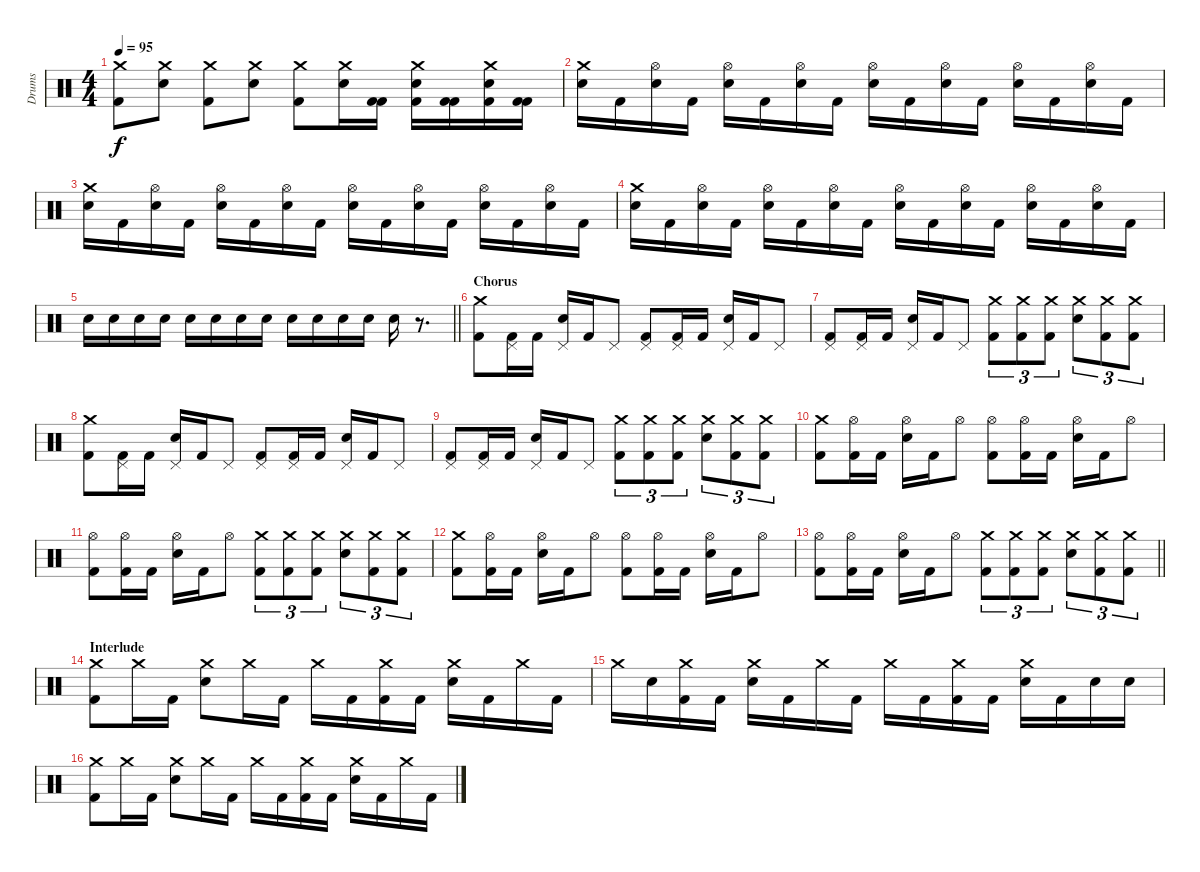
\track ("Drums" "Drums") {instrument percussion}
\staff {score}
\articulation defaults
\ts (4 4)
\tempo 95
\clef neutral
\ks c
("Crash medium (hit)" "Kick (hit) 2").8{dy f} ("Crash medium (hit)" "Electric Snare (hit)").8 ("Crash medium (hit)" "Kick (hit) 2").8 ("Crash medium (hit)" "Electric Snare (hit)").8 ("Crash medium (hit)" "Kick (hit) 2").8 ("Crash medium (hit)" "Electric Snare (hit)").16 ("Kick (hit) 2" "Kick (hit) 2").16 ("Crash medium (hit)" "Electric Snare (hit)" "Kick (hit) 2").16 ("Kick (hit) 2" "Kick (hit) 2").16 ("Crash medium (hit)" "Electric Snare (hit)" "Kick (hit) 2").16 ("Kick (hit) 2" "Kick (hit) 2").16 |
("Crash medium (hit)" "Electric Snare (hit)").16 "Kick (hit) 2".16 ("Hi-Hat (open)" "Electric Snare (hit)").16 "Kick (hit) 2".16 ("Hi-Hat (open)" "Electric Snare (hit)").16 "Kick (hit) 2".16 ("Hi-Hat (open)" "Electric Snare (hit)").16 "Kick (hit) 2".16 ("Hi-Hat (open)" "Electric Snare (hit)").16 "Kick (hit) 2".16 ("Hi-Hat (open)" "Electric Snare (hit)").16 "Kick (hit) 2".16 ("Hi-Hat (open)" "Electric Snare (hit)").16 "Kick (hit) 2".16 ("Hi-Hat (open)" "Electric Snare (hit)").16 "Kick (hit) 2".16 |
("Crash medium (hit)" "Electric Snare (hit)").16 "Kick (hit) 2".16 ("Hi-Hat (open)" "Electric Snare (hit)").16 "Kick (hit) 2".16 ("Hi-Hat (open)" "Electric Snare (hit)").16 "Kick (hit) 2".16 ("Hi-Hat (open)" "Electric Snare (hit)").16 "Kick (hit) 2".16 ("Hi-Hat (open)" "Electric Snare (hit)").16 "Kick (hit) 2".16 ("Hi-Hat (open)" "Electric Snare (hit)").16 "Kick (hit) 2".16 ("Hi-Hat (open)" "Electric Snare (hit)").16 "Kick (hit) 2".16 ("Hi-Hat (open)" "Electric Snare (hit)").16 "Kick (hit) 2".16 |
("Crash medium (hit)" "Electric Snare (hit)").16 "Kick (hit) 2".16 ("Hi-Hat (open)" "Electric Snare (hit)").16 "Kick (hit) 2".16 ("Hi-Hat (open)" "Electric Snare (hit)").16 "Kick (hit) 2".16 ("Hi-Hat (open)" "Electric Snare (hit)").16 "Kick (hit) 2".16 ("Hi-Hat (open)" "Electric Snare (hit)").16 "Kick (hit) 2".16 ("Hi-Hat (open)" "Electric Snare (hit)").16 "Kick (hit) 2".16 ("Hi-Hat (open)" "Electric Snare (hit)").16 "Kick (hit) 2".16 ("Hi-Hat (open)" "Electric Snare (hit)").16 "Kick (hit) 2".16 |
\barLineRight lightlight "Electric Snare (hit)".16 "Electric Snare (hit)".16 "Electric Snare (hit)".16 "Electric Snare (hit)".16 "Electric Snare (hit)".16 "Electric Snare (hit)".16 "Electric Snare (hit)".16 "Electric Snare (hit)".16 "Electric Snare (hit)".16 "Electric Snare (hit)".16 "Electric Snare (hit)".16 "Electric Snare (hit)".16 "Electric Snare (hit)".16
r.8{d} |
\section ("" "Chorus")
("Crash medium (hit)" "Kick (hit) 2").8 ("Pedal Hi-Hat (hit)" "Kick (hit) 2").16 "Kick (hit) 2".16 ("Pedal Hi-Hat (hit)" "Electric Snare (hit)").16 "Kick (hit) 2".16 "Pedal Hi-Hat (hit)".8 ("Pedal Hi-Hat (hit)" "Kick (hit) 2").8 ("Pedal Hi-Hat (hit)" "Kick (hit) 2").16 "Kick (hit) 2".16 ("Pedal Hi-Hat (hit)" "Electric Snare (hit)").16 "Kick (hit) 2".16 "Pedal Hi-Hat (hit)".8 |
("Pedal Hi-Hat (hit)" "Kick (hit) 2").8 ("Pedal Hi-Hat (hit)" "Kick (hit) 2").16 "Kick (hit) 2".16 ("Pedal Hi-Hat (hit)" "Electric Snare (hit)").16 "Kick (hit) 2".16 "Pedal Hi-Hat (hit)".8 ("Crash medium (hit)" "Kick (hit) 2").8{tu (3 2)} ("Crash medium (hit)" "Kick (hit) 2").8{tu (3 2)} ("Crash medium (hit)" "Kick (hit) 2").8{tu (3 2)} ("Crash medium (hit)" "Electric Snare (hit)").8{tu (3 2)} ("Crash medium (hit)" "Kick (hit) 2").8{tu (3 2)} ("Crash medium (hit)" "Kick (hit) 2").8{tu (3 2)} |
("Crash medium (hit)" "Kick (hit) 2").8 ("Pedal Hi-Hat (hit)" "Kick (hit) 2").16 "Kick (hit) 2".16 ("Pedal Hi-Hat (hit)" "Electric Snare (hit)").16 "Kick (hit) 2".16 "Pedal Hi-Hat (hit)".8 ("Pedal Hi-Hat (hit)" "Kick (hit) 2").8 ("Pedal Hi-Hat (hit)" "Kick (hit) 2").16 "Kick (hit) 2".16 ("Pedal Hi-Hat (hit)" "Electric Snare (hit)").16 "Kick (hit) 2".16 "Pedal Hi-Hat (hit)".8 |
("Pedal Hi-Hat (hit)" "Kick (hit) 2").8 ("Pedal Hi-Hat (hit)" "Kick (hit) 2").16 "Kick (hit) 2".16 ("Pedal Hi-Hat (hit)" "Electric Snare (hit)").16 "Kick (hit) 2".16 "Pedal Hi-Hat (hit)".8 ("Crash medium (hit)" "Kick (hit) 2").8{tu (3 2)} ("Crash medium (hit)" "Kick (hit) 2").8{tu (3 2)} ("Crash medium (hit)" "Kick (hit) 2").8{tu (3 2)} ("Crash medium (hit)" "Electric Snare (hit)").8{tu (3 2)} ("Crash medium (hit)" "Kick (hit) 2").8{tu (3 2)} ("Crash medium (hit)" "Kick (hit) 2").8{tu (3 2)} |
("Crash medium (hit)" "Kick (hit) 2").8 ("Hi-Hat (open)" "Kick (hit) 2").16 "Kick (hit) 2".16 ("Hi-Hat (open)" "Electric Snare (hit)").16 "Kick (hit) 2".16 "Hi-Hat (open)".8 ("Hi-Hat (open)" "Kick (hit) 2").8 ("Hi-Hat (open)" "Kick (hit) 2").16 "Kick (hit) 2".16 ("Hi-Hat (open)" "Electric Snare (hit)").16 "Kick (hit) 2".16 "Hi-Hat (open)".8 |
("Hi-Hat (open)" "Kick (hit) 2").8 ("Hi-Hat (open)" "Kick (hit) 2").16 "Kick (hit) 2".16 ("Hi-Hat (open)" "Electric Snare (hit)").16 "Kick (hit) 2".16 "Hi-Hat (open)".8 ("Crash medium (hit)" "Kick (hit) 2").8{tu (3 2)} ("Crash medium (hit)" "Kick (hit) 2").8{tu (3 2)} ("Crash medium (hit)" "Kick (hit) 2").8{tu (3 2)} ("Crash medium (hit)" "Electric Snare (hit)").8{tu (3 2)} ("Crash medium (hit)" "Kick (hit) 2").8{tu (3 2)} ("Crash medium (hit)" "Kick (hit) 2").8{tu (3 2)} |
("Crash medium (hit)" "Kick (hit) 2").8 ("Hi-Hat (open)" "Kick (hit) 2").16 "Kick (hit) 2".16 ("Hi-Hat (open)" "Electric Snare (hit)").16 "Kick (hit) 2".16 "Hi-Hat (open)".8 ("Hi-Hat (open)" "Kick (hit) 2").8 ("Hi-Hat (open)" "Kick (hit) 2").16 "Kick (hit) 2".16 ("Hi-Hat (open)" "Electric Snare (hit)").16 "Kick (hit) 2".16 "Hi-Hat (open)".8 |
\barLineRight lightlight
("Hi-Hat (open)" "Kick (hit) 2").8 ("Hi-Hat (open)" "Kick (hit) 2").16 "Kick (hit) 2".16 ("Hi-Hat (open)" "Electric Snare (hit)").16 "Kick (hit) 2".16 "Hi-Hat (open)".8 ("Crash medium (hit)" "Kick (hit) 2").8{tu (3 2)} ("Crash medium (hit)" "Kick (hit) 2").8{tu (3 2)} ("Crash medium (hit)" "Kick (hit) 2").8{tu (3 2)} ("Crash medium (hit)" "Electric Snare (hit)").8{tu (3 2)} ("Crash medium (hit)" "Kick (hit) 2").8{tu (3 2)} ("Crash medium (hit)" "Kick (hit) 2").8{tu (3 2)} |
\section ("" "Interlude")
("Crash medium (hit)" "Kick (hit) 2").8 "Crash medium (hit)".16 "Kick (hit) 2".16 ("Crash medium (hit)" "Electric Snare (hit)").8 "Crash medium (hit)".16 "Kick (hit) 2".16 "Crash medium (hit)".16 "Kick (hit) 2".16 ("Crash medium (hit)" "Kick (hit) 2").16 "Kick (hit) 2".16 ("Crash medium (hit)" "Electric Snare (hit)").16 "Kick (hit) 2".16 "Crash medium (hit)".16 "Kick (hit) 2".16 |
"Crash medium (hit)".16 "Electric Snare (hit)".16 ("Crash medium (hit)" "Kick (hit) 2").16 "Kick (hit) 2".16 ("Crash medium (hit)" "Electric Snare (hit)").16 "Kick (hit) 2".16 "Crash medium (hit)".16 "Kick (hit) 2".16 "Crash medium (hit)".16 "Kick (hit) 2".16 ("Crash medium (hit)" "Kick (hit) 2").16 "Kick (hit) 2".16 ("Crash medium (hit)" "Electric Snare (hit)").16 "Kick (hit) 2".16 "Electric Snare (hit)".16 "Electric Snare (hit)".16 |
("Crash medium (hit)" "Kick (hit) 2").8 "Crash medium (hit)".16 "Kick (hit) 2".16 ("Crash medium (hit)" "Electric Snare (hit)").8 "Crash medium (hit)".16 "Kick (hit) 2".16 "Crash medium (hit)".16 "Kick (hit) 2".16 ("Crash medium (hit)" "Kick (hit) 2").16 "Kick (hit) 2".16 ("Crash medium (hit)" "Electric Snare (hit)").16 "Kick (hit) 2".16 "Crash medium (hit)".16 "Kick (hit) 2".16
